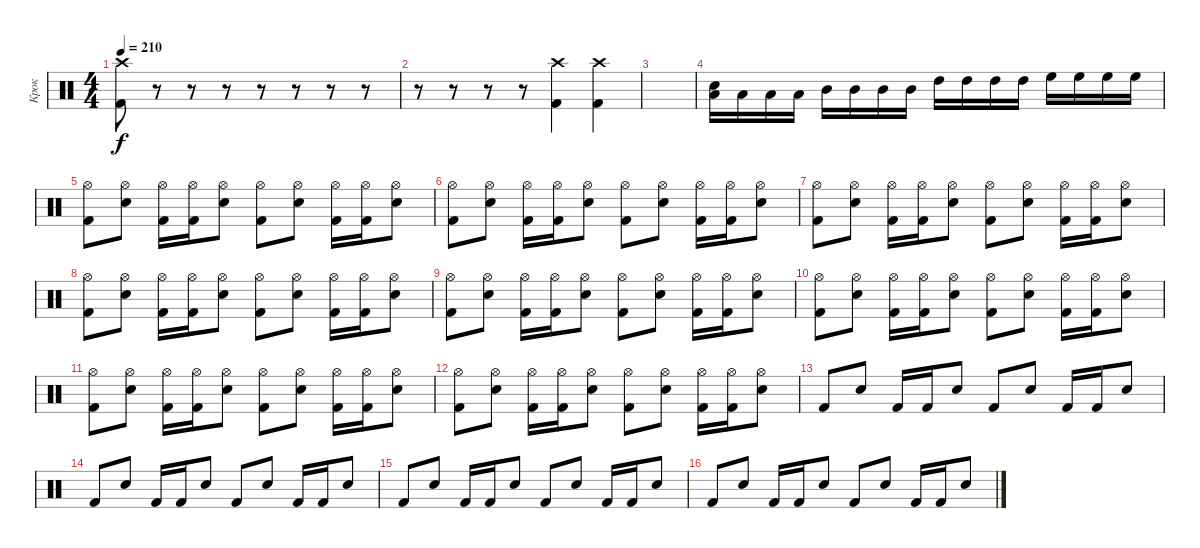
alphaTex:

\track ("Крок" "Крок") {instrument percussion}
\staff {score}
\articulation defaults
\ts (4 4)
\tempo 210
\clef neutral
\ks c
("Crash high (hit)" "Kick (hit) 2").8{dy f} r.8 r.8 r.8 r.8 r.8 r.8 r.8 |
r.8 r.8 r.8 r.8 ("Crash high (hit)" "Kick (hit) 2").4 ("Crash high (hit)" "Kick (hit) 2").4 |
|
("Low Tom (hit)" "Electric Snare (hit)").16 "Low Tom (hit)".16 "Low Tom (hit)".16 "Low Tom (hit)".16 "Mid Tom (hit)".16 "Mid Tom (hit)".16 "Mid Tom (hit)".16 "Mid Tom (hit)".16 "High Tom (hit)".16 "High Tom (hit)".16 "High Tom (hit)".16 "High Tom (hit)".16 "High Floor Tom (hit)".16 "High Floor Tom (hit)".16 "High Floor Tom (hit)".16 "High Floor Tom (hit)".16 |
("Hi-Hat (open)" "Kick (hit) 2").8 ("Hi-Hat (open)" "Electric Snare (hit)").8 ("Hi-Hat (open)" "Kick (hit) 2").16 ("Hi-Hat (open)" "Kick (hit) 2").16 ("Hi-Hat (open)" "Electric Snare (hit)").8 ("Hi-Hat (open)" "Kick (hit) 2").8 ("Hi-Hat (open)" "Electric Snare (hit)").8 ("Hi-Hat (open)" "Kick (hit) 2").16 ("Hi-Hat (open)" "Kick (hit) 2").16 ("Hi-Hat (open)" "Electric Snare (hit)").8 |
("Hi-Hat (open)" "Kick (hit) 2").8 ("Hi-Hat (open)" "Electric Snare (hit)").8 ("Hi-Hat (open)" "Kick (hit) 2").16 ("Hi-Hat (open)" "Kick (hit) 2").16 ("Hi-Hat (open)" "Electric Snare (hit)").8 ("Hi-Hat (open)" "Kick (hit) 2").8 ("Hi-Hat (open)" "Electric Snare (hit)").8 ("Hi-Hat (open)" "Kick (hit) 2").16 ("Hi-Hat (open)" "Kick (hit) 2").16 ("Hi-Hat (open)" "Electric Snare (hit)").8 |
("Hi-Hat (open)" "Kick (hit) 2").8 ("Hi-Hat (open)" "Electric Snare (hit)").8 ("Hi-Hat (open)" "Kick (hit) 2").16 ("Hi-Hat (open)" "Kick (hit) 2").16 ("Hi-Hat (open)" "Electric Snare (hit)").8 ("Hi-Hat (open)" "Kick (hit) 2").8 ("Hi-Hat (open)" "Electric Snare (hit)").8 ("Hi-Hat (open)" "Kick (hit) 2").16 ("Hi-Hat (open)" "Kick (hit) 2").16 ("Hi-Hat (open)" "Electric Snare (hit)").8 |
("Hi-Hat (open)" "Kick (hit) 2").8 ("Hi-Hat (open)" "Electric Snare (hit)").8 ("Hi-Hat (open)" "Kick (hit) 2").16 ("Hi-Hat (open)" "Kick (hit) 2").16 ("Hi-Hat (open)" "Electric Snare (hit)").8 ("Hi-Hat (open)" "Kick (hit) 2").8 ("Hi-Hat (open)" "Electric Snare (hit)").8 ("Hi-Hat (open)" "Kick (hit) 2").16 ("Hi-Hat (open)" "Kick (hit) 2").16 ("Hi-Hat (open)" "Electric Snare (hit)").8 |
("Hi-Hat (open)" "Kick (hit) 2").8 ("Hi-Hat (open)" "Electric Snare (hit)").8 ("Hi-Hat (open)" "Kick (hit) 2").16 ("Hi-Hat (open)" "Kick (hit) 2").16 ("Hi-Hat (open)" "Electric Snare (hit)").8 ("Hi-Hat (open)" "Kick (hit) 2").8 ("Hi-Hat (open)" "Electric Snare (hit)").8 ("Hi-Hat (open)" "Kick (hit) 2").16 ("Hi-Hat (open)" "Kick (hit) 2").16 ("Hi-Hat (open)" "Electric Snare (hit)").8 |
("Hi-Hat (open)" "Kick (hit) 2").8 ("Hi-Hat (open)" "Electric Snare (hit)").8 ("Hi-Hat (open)" "Kick (hit) 2").16 ("Hi-Hat (open)" "Kick (hit) 2").16 ("Hi-Hat (open)" "Electric Snare (hit)").8 ("Hi-Hat (open)" "Kick (hit) 2").8 ("Hi-Hat (open)" "Electric Snare (hit)").8 ("Hi-Hat (open)" "Kick (hit) 2").16 ("Hi-Hat (open)" "Kick (hit) 2").16 ("Hi-Hat (open)" "Electric Snare (hit)").8 |
("Hi-Hat (open)" "Kick (hit) 2").8 ("Hi-Hat (open)" "Electric Snare (hit)").8 ("Hi-Hat (open)" "Kick (hit) 2").16 ("Hi-Hat (open)" "Kick (hit) 2").16 ("Hi-Hat (open)" "Electric Snare (hit)").8 ("Hi-Hat (open)" "Kick (hit) 2").8 ("Hi-Hat (open)" "Electric Snare (hit)").8 ("Hi-Hat (open)" "Kick (hit) 2").16 ("Hi-Hat (open)" "Kick (hit) 2").16 ("Hi-Hat (open)" "Electric Snare (hit)").8 |
("Hi-Hat (open)" "Kick (hit) 2").8 ("Hi-Hat (open)" "Electric Snare (hit)").8 ("Hi-Hat (open)" "Kick (hit) 2").16 ("Hi-Hat (open)" "Kick (hit) 2").16 ("Hi-Hat (open)" "Electric Snare (hit)").8 ("Hi-Hat (open)" "Kick (hit) 2").8 ("Hi-Hat (open)" "Electric Snare (hit)").8 ("Hi-Hat (open)" "Kick (hit) 2").16 ("Hi-Hat (open)" "Kick (hit) 2").16 ("Hi-Hat (open)" "Electric Snare (hit)").8 |
"Kick (hit) 2".8 "Electric Snare (hit)".8 "Kick (hit) 2".16 "Kick (hit) 2".16 "Electric Snare (hit)".8 "Kick (hit) 2".8 "Electric Snare (hit)".8 "Kick (hit) 2".16 "Kick (hit) 2".16 "Electric Snare (hit)".8 |
"Kick (hit) 2".8 "Electric Snare (hit)".8 "Kick (hit) 2".16 "Kick (hit) 2".16 "Electric Snare (hit)".8 "Kick (hit) 2".8 "Electric Snare (hit)".8 "Kick (hit) 2".16 "Kick (hit) 2".16 "Electric Snare (hit)".8 |
"Kick (hit) 2".8 "Electric Snare (hit)".8 "Kick (hit) 2".16 "Kick (hit) 2".16 "Electric Snare (hit)".8 "Kick (hit) 2".8 "Electric Snare (hit)".8 "Kick (hit) 2".16 "Kick (hit) 2".16 "Electric Snare (hit)".8 |
"Kick (hit) 2".8 "Electric Snare (hit)".8 "Kick (hit) 2".16 "Kick (hit) 2".16 "Electric Snare (hit)".8 "Kick (hit) 2".8 "Electric Snare (hit)".8 "Kick (hit) 2".16 "Kick (hit) 2".16 "Electric Snare (hit)".8
